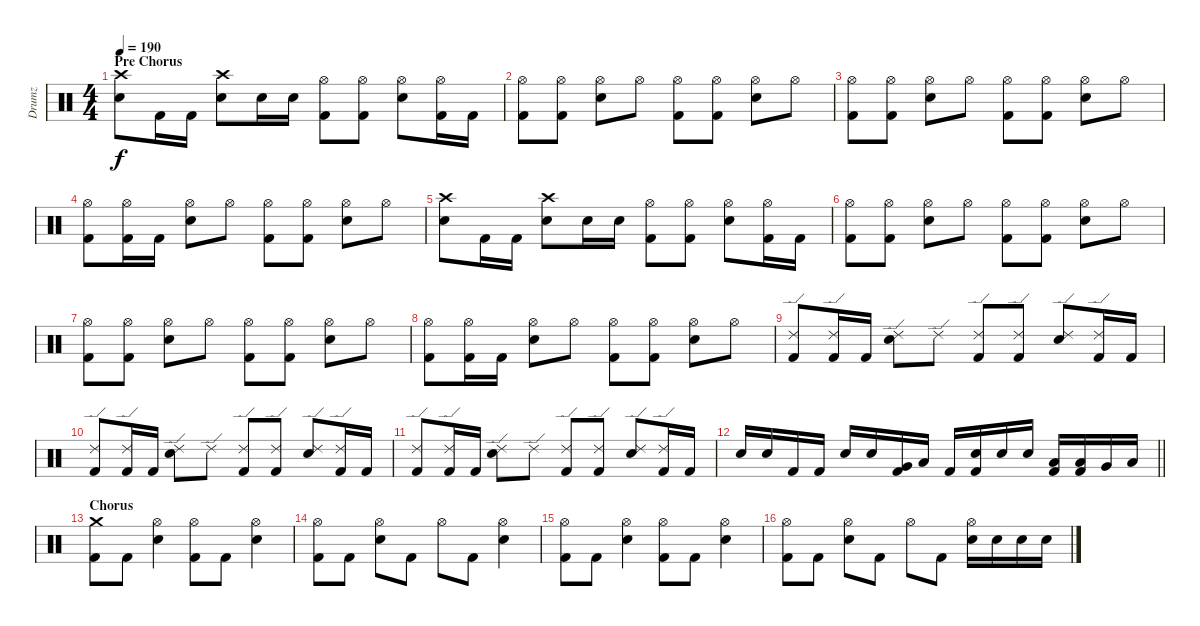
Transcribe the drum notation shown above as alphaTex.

\track ("Drumz" "Drumz") {instrument percussion}
\staff {score}
\articulation defaults
\ts (4 4)
\section ("" "Pre Chorus")
\tempo 190
\clef neutral
\ks c
("Crash high (hit)" "Snare (hit) 2").8{dy f} "Kick (hit) 2".16 "Kick (hit) 2".16 ("Crash high (hit)" "Snare (hit) 2").8 "Snare (hit) 2".16 "Snare (hit) 2".16 ("Hi-Hat (open)" "Kick (hit) 2").8 ("Hi-Hat (open)" "Kick (hit) 2").8 ("Snare (hit) 2" "Hi-Hat (open)").8 ("Hi-Hat (open)" "Kick (hit) 2").16 "Kick (hit) 2".16 |
("Hi-Hat (open)" "Kick (hit) 2").8 ("Hi-Hat (open)" "Kick (hit) 2").8 ("Snare (hit) 2" "Hi-Hat (open)").8 "Hi-Hat (open)".8 ("Hi-Hat (open)" "Kick (hit) 2").8 ("Hi-Hat (open)" "Kick (hit) 2").8 ("Snare (hit) 2" "Hi-Hat (open)").8 "Hi-Hat (open)".8 |
("Hi-Hat (open)" "Kick (hit) 2").8 ("Hi-Hat (open)" "Kick (hit) 2").8 ("Snare (hit) 2" "Hi-Hat (open)").8 "Hi-Hat (open)".8 ("Hi-Hat (open)" "Kick (hit) 2").8 ("Hi-Hat (open)" "Kick (hit) 2").8 ("Snare (hit) 2" "Hi-Hat (open)").8 "Hi-Hat (open)".8 |
("Hi-Hat (open)" "Kick (hit) 2").8 ("Hi-Hat (open)" "Kick (hit) 2").16 "Kick (hit) 2".16 ("Snare (hit) 2" "Hi-Hat (open)").8 "Hi-Hat (open)".8 ("Hi-Hat (open)" "Kick (hit) 2").8 ("Hi-Hat (open)" "Kick (hit) 2").8 ("Snare (hit) 2" "Hi-Hat (open)").8 "Hi-Hat (open)".8 |
("Crash high (hit)" "Snare (hit) 2").8 "Kick (hit) 2".16 "Kick (hit) 2".16 ("Crash high (hit)" "Snare (hit) 2").8 "Snare (hit) 2".16 "Snare (hit) 2".16 ("Hi-Hat (open)" "Kick (hit) 2").8 ("Hi-Hat (open)" "Kick (hit) 2").8 ("Snare (hit) 2" "Hi-Hat (open)").8 ("Hi-Hat (open)" "Kick (hit) 2").16 "Kick (hit) 2".16 |
("Hi-Hat (open)" "Kick (hit) 2").8 ("Hi-Hat (open)" "Kick (hit) 2").8 ("Snare (hit) 2" "Hi-Hat (open)").8 "Hi-Hat (open)".8 ("Hi-Hat (open)" "Kick (hit) 2").8 ("Hi-Hat (open)" "Kick (hit) 2").8 ("Snare (hit) 2" "Hi-Hat (open)").8 "Hi-Hat (open)".8 |
("Hi-Hat (open)" "Kick (hit) 2").8 ("Hi-Hat (open)" "Kick (hit) 2").8 ("Snare (hit) 2" "Hi-Hat (open)").8 "Hi-Hat (open)".8 ("Hi-Hat (open)" "Kick (hit) 2").8 ("Hi-Hat (open)" "Kick (hit) 2").8 ("Snare (hit) 2" "Hi-Hat (open)").8 "Hi-Hat (open)".8 |
("Hi-Hat (open)" "Kick (hit) 2").8 ("Hi-Hat (open)" "Kick (hit) 2").16 "Kick (hit) 2".16 ("Snare (hit) 2" "Hi-Hat (open)").8 "Hi-Hat (open)".8 ("Hi-Hat (open)" "Kick (hit) 2").8 ("Hi-Hat (open)" "Kick (hit) 2").8 ("Snare (hit) 2" "Hi-Hat (open)").8 "Hi-Hat (open)".8 |
("Ride (edge) 2" "Kick (hit) 2").8 ("Ride (edge) 2" "Kick (hit) 2").16 "Kick (hit) 2".16 ("Ride (edge) 2" "Snare (hit) 2").8 "Ride (edge) 2".8 ("Ride (edge) 2" "Kick (hit) 2").8 ("Ride (edge) 2" "Kick (hit) 2").8 ("Ride (edge) 2" "Snare (hit) 2").8 ("Ride (edge) 2" "Kick (hit) 2").16 "Kick (hit) 2".16 |
("Ride (edge) 2" "Kick (hit) 2").8 ("Ride (edge) 2" "Kick (hit) 2").16 "Kick (hit) 2".16 ("Ride (edge) 2" "Snare (hit) 2").8 "Ride (edge) 2".8 ("Ride (edge) 2" "Kick (hit) 2").8 ("Ride (edge) 2" "Kick (hit) 2").8 ("Ride (edge) 2" "Snare (hit) 2").8 ("Ride (edge) 2" "Kick (hit) 2").16 "Kick (hit) 2".16 |
("Ride (edge) 2" "Kick (hit) 2").8 ("Ride (edge) 2" "Kick (hit) 2").16 "Kick (hit) 2".16 ("Ride (edge) 2" "Snare (hit) 2").8 "Ride (edge) 2".8 ("Ride (edge) 2" "Kick (hit) 2").8 ("Ride (edge) 2" "Kick (hit) 2").8 ("Ride (edge) 2" "Snare (hit) 2").8 ("Ride (edge) 2" "Kick (hit) 2").16 "Kick (hit) 2".16 |
\barLineRight lightlight "Snare (hit) 2".16 "Snare (hit) 2".16 "Kick (hit) 2".16 "Kick (hit) 2".16 "Snare (hit) 2".16 "Snare (hit) 2".16
("Very Low Tom (hit)" "Kick (hit) 2").16 "Low Floor Tom (hit)".16 "Kick (hit) 2".16 ("Snare (hit) 2" "Kick (hit) 2").16 "Snare (hit) 2".16 "Snare (hit) 2".16 ("Low Tom (hit)" "Kick (hit) 2").16 ("Low Tom (hit)" "Kick (hit) 2").16 "Very Low Tom (hit)".16 "Low Floor Tom (hit)".16 |
\section ("" "Chorus")
("Crash medium (hit)" "Kick (hit) 2").8 "Kick (hit) 2".8 ("Snare (hit) 2" "Hi-Hat (open)").4 ("Hi-Hat (open)" "Kick (hit) 2").8 "Kick (hit) 2".8 ("Snare (hit) 2" "Hi-Hat (open)").4 |
("Hi-Hat (open)" "Kick (hit) 2").8 "Kick (hit) 2".8 ("Snare (hit) 2" "Hi-Hat (open)").8 "Kick (hit) 2".8 "Hi-Hat (open)".8 "Kick (hit) 2".8 ("Snare (hit) 2" "Hi-Hat (open)").4 |
("Hi-Hat (open)" "Kick (hit) 2").8 "Kick (hit) 2".8 ("Snare (hit) 2" "Hi-Hat (open)").4 ("Hi-Hat (open)" "Kick (hit) 2").8 "Kick (hit) 2".8 ("Snare (hit) 2" "Hi-Hat (open)").4 |
("Hi-Hat (open)" "Kick (hit) 2").8 "Kick (hit) 2".8 ("Snare (hit) 2" "Hi-Hat (open)").8 "Kick (hit) 2".8 "Hi-Hat (open)".8 "Kick (hit) 2".8 ("Snare (hit) 2" "Hi-Hat (open)").16 "Snare (hit) 2".16 "Snare (hit) 2".16 "Snare (hit) 2".16
